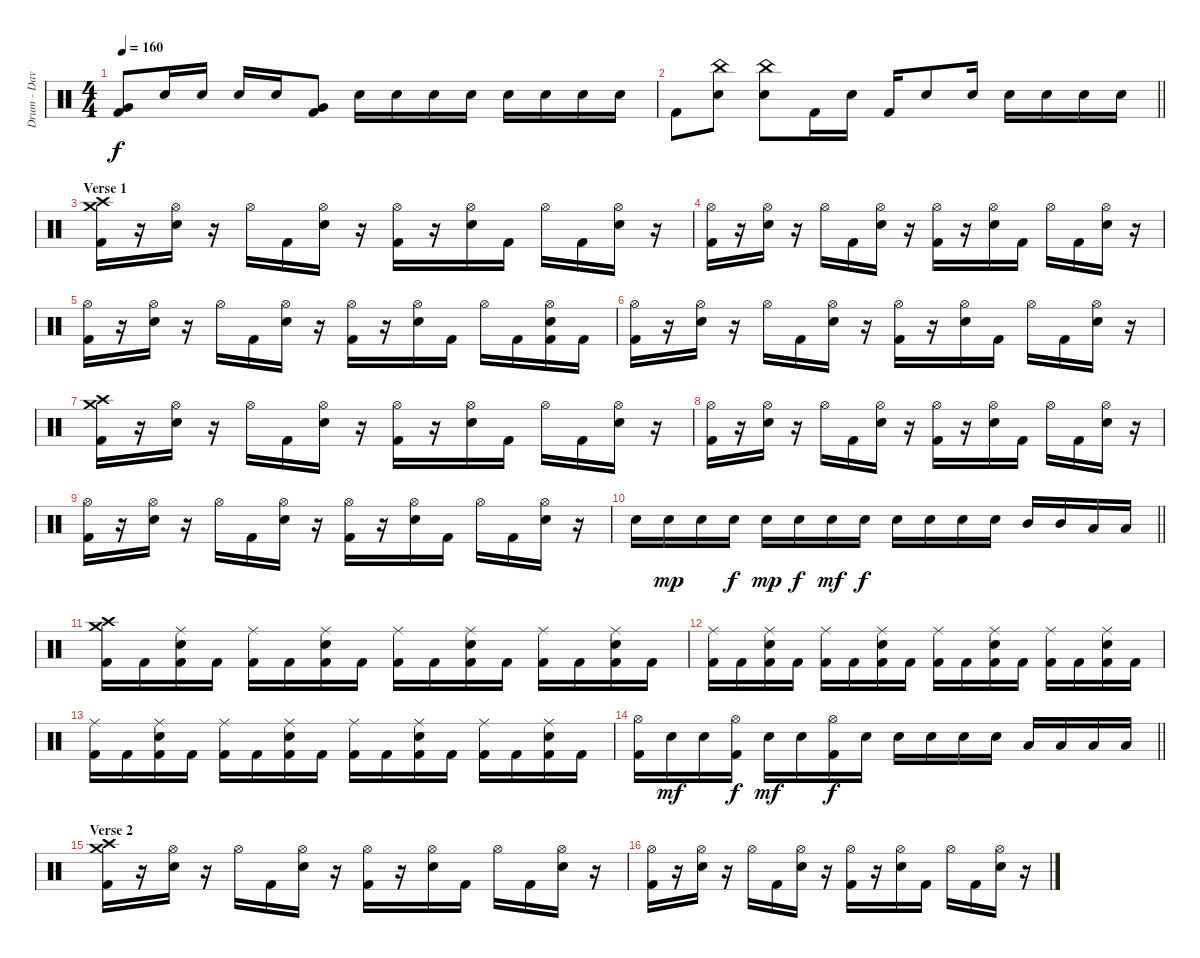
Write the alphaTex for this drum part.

\track ("Drum - Dave Mackintosh" "Drum - Dav") {instrument percussion}
\staff {score}
\articulation defaults
\ts (4 4)
\tempo 160
\clef neutral
\ks c
("Very Low Tom (hit)" "Kick (hit) 2").8{dy f} "Electric Snare (hit)".16 "Electric Snare (hit)".16 "Electric Snare (hit)".16 "Electric Snare (hit)".16 ("Very Low Tom (hit)" "Kick (hit) 2").8 "Electric Snare (hit)".16 "Electric Snare (hit)".16 "Electric Snare (hit)".16 "Electric Snare (hit)".16 "Electric Snare (hit)".16 "Electric Snare (hit)".16 "Electric Snare (hit)".16 "Electric Snare (hit)".16 |
\barLineRight lightlight "Kick (hit) 2".8
("China (hit)" "Electric Snare (hit)").8 ("China (hit)" "Electric Snare (hit)").8 "Kick (hit) 2".16 "Electric Snare (hit)".16 "Kick (hit) 2".16 "Electric Snare (hit)".8 "Electric Snare (hit)".16 "Electric Snare (hit)".16 "Electric Snare (hit)".16 "Electric Snare (hit)".16 "Electric Snare (hit)".16 |
\section ("" "Verse 1")
("Crash medium (hit)" "Crash high (hit)" "Kick (hit) 2").16 r.16 ("Hi-Hat (open)" "Electric Snare (hit)").16 r.16 "Hi-Hat (open)".16 "Kick (hit) 2".16 ("Hi-Hat (open)" "Electric Snare (hit)").16 r.16 ("Hi-Hat (open)" "Kick (hit) 2").16 r.16 ("Hi-Hat (open)" "Electric Snare (hit)").16 "Kick (hit) 2".16 "Hi-Hat (open)".16 "Kick (hit) 2".16 ("Hi-Hat (open)" "Electric Snare (hit)").16 r.16 |
("Hi-Hat (open)" "Kick (hit) 2").16 r.16 ("Hi-Hat (open)" "Electric Snare (hit)").16 r.16 "Hi-Hat (open)".16 "Kick (hit) 2".16 ("Hi-Hat (open)" "Electric Snare (hit)").16 r.16 ("Hi-Hat (open)" "Kick (hit) 2").16 r.16 ("Hi-Hat (open)" "Electric Snare (hit)").16 "Kick (hit) 2".16 "Hi-Hat (open)".16 "Kick (hit) 2".16 ("Hi-Hat (open)" "Electric Snare (hit)").16 r.16 |
("Hi-Hat (open)" "Kick (hit) 2").16 r.16 ("Hi-Hat (open)" "Electric Snare (hit)").16 r.16 "Hi-Hat (open)".16 "Kick (hit) 2".16 ("Hi-Hat (open)" "Electric Snare (hit)").16 r.16 ("Hi-Hat (open)" "Kick (hit) 2").16 r.16 ("Hi-Hat (open)" "Electric Snare (hit)").16 "Kick (hit) 2".16 "Hi-Hat (open)".16 "Kick (hit) 2".16 ("Hi-Hat (open)" "Electric Snare (hit)" "Kick (hit) 2").16 "Kick (hit) 2".16 |
("Hi-Hat (open)" "Kick (hit) 2").16 r.16 ("Hi-Hat (open)" "Electric Snare (hit)").16 r.16 "Hi-Hat (open)".16 "Kick (hit) 2".16 ("Hi-Hat (open)" "Electric Snare (hit)").16 r.16 ("Hi-Hat (open)" "Kick (hit) 2").16 r.16 ("Hi-Hat (open)" "Electric Snare (hit)").16 "Kick (hit) 2".16 "Hi-Hat (open)".16 "Kick (hit) 2".16 ("Hi-Hat (open)" "Electric Snare (hit)").16 r.16 |
("Crash medium (hit)" "Crash high (hit)" "Kick (hit) 2").16 r.16 ("Hi-Hat (open)" "Electric Snare (hit)").16 r.16 "Hi-Hat (open)".16 "Kick (hit) 2".16 ("Hi-Hat (open)" "Electric Snare (hit)").16 r.16 ("Hi-Hat (open)" "Kick (hit) 2").16 r.16 ("Hi-Hat (open)" "Electric Snare (hit)").16 "Kick (hit) 2".16 "Hi-Hat (open)".16 "Kick (hit) 2".16 ("Hi-Hat (open)" "Electric Snare (hit)").16 r.16 |
("Hi-Hat (open)" "Kick (hit) 2").16 r.16 ("Hi-Hat (open)" "Electric Snare (hit)").16 r.16 "Hi-Hat (open)".16 "Kick (hit) 2".16 ("Hi-Hat (open)" "Electric Snare (hit)").16 r.16 ("Hi-Hat (open)" "Kick (hit) 2").16 r.16 ("Hi-Hat (open)" "Electric Snare (hit)").16 "Kick (hit) 2".16 "Hi-Hat (open)".16 "Kick (hit) 2".16 ("Hi-Hat (open)" "Electric Snare (hit)").16 r.16 |
("Hi-Hat (open)" "Kick (hit) 2").16 r.16 ("Hi-Hat (open)" "Electric Snare (hit)").16 r.16 "Hi-Hat (open)".16 "Kick (hit) 2".16 ("Hi-Hat (open)" "Electric Snare (hit)").16 r.16 ("Hi-Hat (open)" "Kick (hit) 2").16 r.16 ("Hi-Hat (open)" "Electric Snare (hit)").16 "Kick (hit) 2".16 "Hi-Hat (open)".16 "Kick (hit) 2".16 ("Hi-Hat (open)" "Electric Snare (hit)").16 r.16 |
\barLineRight lightlight "Electric Snare (hit)".16 "Electric Snare (hit)".16{dy mp} "Electric Snare (hit)".16 "Electric Snare (hit)".16{dy f} "Electric Snare (hit)".16{dy mp} "Electric Snare (hit)".16{dy f} "Electric Snare (hit)".16{dy mf} "Electric Snare (hit)".16{dy f} "Electric Snare (hit)".16 "Electric Snare (hit)".16 "Electric Snare (hit)".16 "Electric Snare (hit)".16 "Mid Tom (hit)".16 "Mid Tom (hit)".16 "Low Tom (hit)".16 "Low Tom (hit)".16
|
\section ("" "")
("Crash high (hit)" "Crash medium (hit)" "Kick (hit) 2").16 "Kick (hit) 2".16 ("Ride (middle)" "Electric Snare (hit)" "Kick (hit) 2").16 "Kick (hit) 2".16 ("Ride (middle)" "Kick (hit) 2").16 "Kick (hit) 2".16 ("Ride (middle)" "Electric Snare (hit)" "Kick (hit) 2").16 "Kick (hit) 2".16 ("Ride (middle)" "Kick (hit) 2").16 "Kick (hit) 2".16 ("Ride (middle)" "Electric Snare (hit)" "Kick (hit) 2").16 "Kick (hit) 2".16 ("Ride (middle)" "Kick (hit) 2").16 "Kick (hit) 2".16 ("Ride (middle)" "Electric Snare (hit)" "Kick (hit) 2").16 "Kick (hit) 2".16 |
("Ride (middle)" "Kick (hit) 2").16 "Kick (hit) 2".16 ("Ride (middle)" "Electric Snare (hit)" "Kick (hit) 2").16 "Kick (hit) 2".16 ("Ride (middle)" "Kick (hit) 2").16 "Kick (hit) 2".16 ("Ride (middle)" "Electric Snare (hit)" "Kick (hit) 2").16 "Kick (hit) 2".16 ("Ride (middle)" "Kick (hit) 2").16 "Kick (hit) 2".16 ("Ride (middle)" "Electric Snare (hit)" "Kick (hit) 2").16 "Kick (hit) 2".16 ("Ride (middle)" "Kick (hit) 2").16 "Kick (hit) 2".16 ("Ride (middle)" "Electric Snare (hit)" "Kick (hit) 2").16 "Kick (hit) 2".16 |
("Ride (middle)" "Kick (hit) 2").16 "Kick (hit) 2".16 ("Ride (middle)" "Electric Snare (hit)" "Kick (hit) 2").16 "Kick (hit) 2".16 ("Ride (middle)" "Kick (hit) 2").16 "Kick (hit) 2".16 ("Ride (middle)" "Electric Snare (hit)" "Kick (hit) 2").16 "Kick (hit) 2".16 ("Ride (middle)" "Kick (hit) 2").16 "Kick (hit) 2".16 ("Ride (middle)" "Electric Snare (hit)" "Kick (hit) 2").16 "Kick (hit) 2".16 ("Ride (middle)" "Kick (hit) 2").16 "Kick (hit) 2".16 ("Ride (middle)" "Electric Snare (hit)" "Kick (hit) 2").16 "Kick (hit) 2".16 |
\barLineRight lightlight
("Hi-Hat (open)" "Kick (hit) 2").16 "Electric Snare (hit)".16{dy mf} "Electric Snare (hit)".16 ("Hi-Hat (open)" "Kick (hit) 2").16{dy f} "Electric Snare (hit)".16{dy mf} "Electric Snare (hit)".16 ("Hi-Hat (open)" "Kick (hit) 2").16{dy f} "Electric Snare (hit)".16 "Electric Snare (hit)".16 "Electric Snare (hit)".16 "Electric Snare (hit)".16 "Electric Snare (hit)".16 "Low Tom (hit)".16 "Low Tom (hit)".16 "Low Tom (hit)".16 "Low Tom (hit)".16 |
\section ("" "Verse 2")
("Crash medium (hit)" "Crash high (hit)" "Kick (hit) 2").16 r.16 ("Hi-Hat (open)" "Electric Snare (hit)").16 r.16 "Hi-Hat (open)".16 "Kick (hit) 2".16 ("Hi-Hat (open)" "Electric Snare (hit)").16 r.16 ("Hi-Hat (open)" "Kick (hit) 2").16 r.16 ("Hi-Hat (open)" "Electric Snare (hit)").16 "Kick (hit) 2".16 "Hi-Hat (open)".16 "Kick (hit) 2".16 ("Hi-Hat (open)" "Electric Snare (hit)").16 r.16 |
("Hi-Hat (open)" "Kick (hit) 2").16 r.16 ("Hi-Hat (open)" "Electric Snare (hit)").16 r.16 "Hi-Hat (open)".16 "Kick (hit) 2".16 ("Hi-Hat (open)" "Electric Snare (hit)").16 r.16 ("Hi-Hat (open)" "Kick (hit) 2").16 r.16 ("Hi-Hat (open)" "Electric Snare (hit)").16 "Kick (hit) 2".16 "Hi-Hat (open)".16 "Kick (hit) 2".16 ("Hi-Hat (open)" "Electric Snare (hit)").16 r.16
